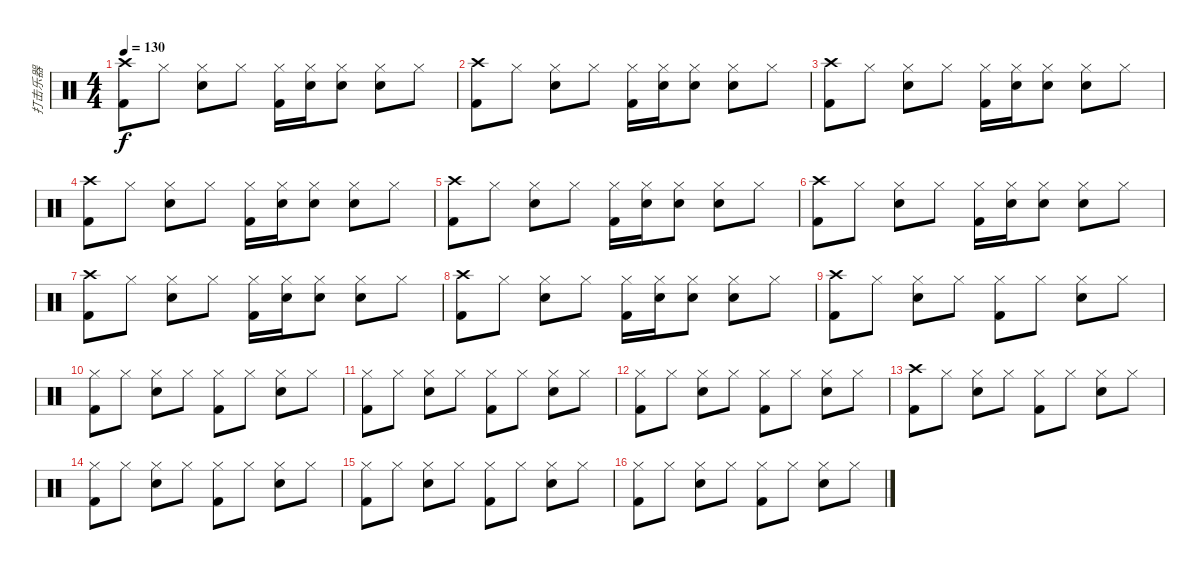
\track ("打击乐器" "打击乐器") {instrument percussion}
\staff {score}
\articulation defaults
\ts (4 4)
\tempo 130
\clef neutral
\ks c
("Kick (hit) 2" "Crash high (hit)").8{dy f} "Hi-Hat (closed)".8 ("Snare (hit) 2" "Hi-Hat (closed)").8 "Hi-Hat (closed)".8 ("Kick (hit) 2" "Hi-Hat (closed)").16 ("Snare (hit) 2" "Hi-Hat (closed)").16 ("Snare (hit) 2" "Hi-Hat (closed)").8 ("Snare (hit) 2" "Hi-Hat (closed)").8 "Hi-Hat (closed)".8 |
("Kick (hit) 2" "Crash high (hit)").8 "Hi-Hat (closed)".8 ("Snare (hit) 2" "Hi-Hat (closed)").8 "Hi-Hat (closed)".8 ("Kick (hit) 2" "Hi-Hat (closed)").16 ("Snare (hit) 2" "Hi-Hat (closed)").16 ("Snare (hit) 2" "Hi-Hat (closed)").8 ("Snare (hit) 2" "Hi-Hat (closed)").8 "Hi-Hat (closed)".8 |
("Kick (hit) 2" "Crash high (hit)").8 "Hi-Hat (closed)".8 ("Snare (hit) 2" "Hi-Hat (closed)").8 "Hi-Hat (closed)".8 ("Kick (hit) 2" "Hi-Hat (closed)").16 ("Snare (hit) 2" "Hi-Hat (closed)").16 ("Snare (hit) 2" "Hi-Hat (closed)").8 ("Snare (hit) 2" "Hi-Hat (closed)").8 "Hi-Hat (closed)".8 |
("Kick (hit) 2" "Crash high (hit)").8 "Hi-Hat (closed)".8 ("Snare (hit) 2" "Hi-Hat (closed)").8 "Hi-Hat (closed)".8 ("Kick (hit) 2" "Hi-Hat (closed)").16 ("Snare (hit) 2" "Hi-Hat (closed)").16 ("Snare (hit) 2" "Hi-Hat (closed)").8 ("Snare (hit) 2" "Hi-Hat (closed)").8 "Hi-Hat (closed)".8 |
("Kick (hit) 2" "Crash high (hit)").8 "Hi-Hat (closed)".8 ("Snare (hit) 2" "Hi-Hat (closed)").8 "Hi-Hat (closed)".8 ("Kick (hit) 2" "Hi-Hat (closed)").16 ("Snare (hit) 2" "Hi-Hat (closed)").16 ("Snare (hit) 2" "Hi-Hat (closed)").8 ("Snare (hit) 2" "Hi-Hat (closed)").8 "Hi-Hat (closed)".8 |
("Kick (hit) 2" "Crash high (hit)").8 "Hi-Hat (closed)".8 ("Snare (hit) 2" "Hi-Hat (closed)").8 "Hi-Hat (closed)".8 ("Kick (hit) 2" "Hi-Hat (closed)").16 ("Snare (hit) 2" "Hi-Hat (closed)").16 ("Snare (hit) 2" "Hi-Hat (closed)").8 ("Snare (hit) 2" "Hi-Hat (closed)").8 "Hi-Hat (closed)".8 |
("Kick (hit) 2" "Crash high (hit)").8 "Hi-Hat (closed)".8 ("Snare (hit) 2" "Hi-Hat (closed)").8 "Hi-Hat (closed)".8 ("Kick (hit) 2" "Hi-Hat (closed)").16 ("Snare (hit) 2" "Hi-Hat (closed)").16 ("Snare (hit) 2" "Hi-Hat (closed)").8 ("Snare (hit) 2" "Hi-Hat (closed)").8 "Hi-Hat (closed)".8 |
("Kick (hit) 2" "Crash high (hit)").8 "Hi-Hat (closed)".8 ("Snare (hit) 2" "Hi-Hat (closed)").8 "Hi-Hat (closed)".8 ("Kick (hit) 2" "Hi-Hat (closed)").16 ("Snare (hit) 2" "Hi-Hat (closed)").16 ("Snare (hit) 2" "Hi-Hat (closed)").8 ("Snare (hit) 2" "Hi-Hat (closed)").8 "Hi-Hat (closed)".8 |
("Kick (hit) 2" "Crash high (hit)").8 "Hi-Hat (closed)".8 ("Snare (hit) 2" "Hi-Hat (closed)").8 "Hi-Hat (closed)".8 ("Kick (hit) 2" "Hi-Hat (closed)").8 "Hi-Hat (closed)".8 ("Snare (hit) 2" "Hi-Hat (closed)").8 "Hi-Hat (closed)".8 |
("Kick (hit) 2" "Hi-Hat (closed)").8 "Hi-Hat (closed)".8 ("Snare (hit) 2" "Hi-Hat (closed)").8 "Hi-Hat (closed)".8 ("Kick (hit) 2" "Hi-Hat (closed)").8 "Hi-Hat (closed)".8 ("Snare (hit) 2" "Hi-Hat (closed)").8 "Hi-Hat (closed)".8 |
("Kick (hit) 2" "Hi-Hat (closed)").8 "Hi-Hat (closed)".8 ("Snare (hit) 2" "Hi-Hat (closed)").8 "Hi-Hat (closed)".8 ("Kick (hit) 2" "Hi-Hat (closed)").8 "Hi-Hat (closed)".8 ("Snare (hit) 2" "Hi-Hat (closed)").8 "Hi-Hat (closed)".8 |
("Kick (hit) 2" "Hi-Hat (closed)").8 "Hi-Hat (closed)".8 ("Snare (hit) 2" "Hi-Hat (closed)").8 "Hi-Hat (closed)".8 ("Kick (hit) 2" "Hi-Hat (closed)").8 "Hi-Hat (closed)".8 ("Snare (hit) 2" "Hi-Hat (closed)").8 "Hi-Hat (closed)".8 |
("Kick (hit) 2" "Crash high (hit)").8 "Hi-Hat (closed)".8 ("Snare (hit) 2" "Hi-Hat (closed)").8 "Hi-Hat (closed)".8 ("Kick (hit) 2" "Hi-Hat (closed)").8 "Hi-Hat (closed)".8 ("Snare (hit) 2" "Hi-Hat (closed)").8 "Hi-Hat (closed)".8 |
("Kick (hit) 2" "Hi-Hat (closed)").8 "Hi-Hat (closed)".8 ("Snare (hit) 2" "Hi-Hat (closed)").8 "Hi-Hat (closed)".8 ("Kick (hit) 2" "Hi-Hat (closed)").8 "Hi-Hat (closed)".8 ("Snare (hit) 2" "Hi-Hat (closed)").8 "Hi-Hat (closed)".8 |
("Kick (hit) 2" "Hi-Hat (closed)").8 "Hi-Hat (closed)".8 ("Snare (hit) 2" "Hi-Hat (closed)").8 "Hi-Hat (closed)".8 ("Kick (hit) 2" "Hi-Hat (closed)").8 "Hi-Hat (closed)".8 ("Snare (hit) 2" "Hi-Hat (closed)").8 "Hi-Hat (closed)".8 |
("Kick (hit) 2" "Hi-Hat (closed)").8 "Hi-Hat (closed)".8 ("Snare (hit) 2" "Hi-Hat (closed)").8 "Hi-Hat (closed)".8 ("Kick (hit) 2" "Hi-Hat (closed)").8 "Hi-Hat (closed)".8 ("Snare (hit) 2" "Hi-Hat (closed)").8 "Hi-Hat (closed)".8
